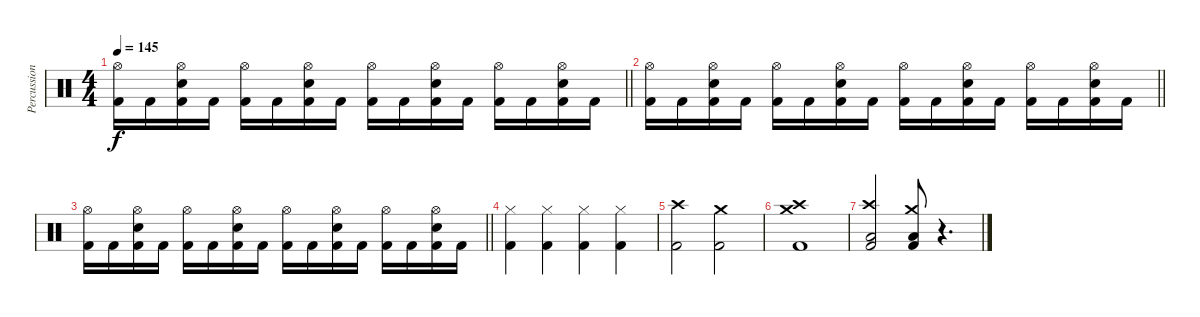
\track ("Percussion" "Percussion") {instrument percussion}
\staff {score}
\articulation defaults
\ts (4 4)
\tempo 145
\clef neutral
\barLineRight lightlight
\ks c
("Hi-Hat (open)" "Kick (hit) 2").16{dy f} "Kick (hit) 2".16 ("Hi-Hat (open)" "Electric Snare (hit)" "Kick (hit) 2").16 "Kick (hit) 2".16 ("Hi-Hat (open)" "Kick (hit) 2").16 "Kick (hit) 2".16 ("Hi-Hat (open)" "Electric Snare (hit)" "Kick (hit) 2").16 "Kick (hit) 2".16 ("Hi-Hat (open)" "Kick (hit) 2").16 "Kick (hit) 2".16 ("Hi-Hat (open)" "Electric Snare (hit)" "Kick (hit) 2").16 "Kick (hit) 2".16 ("Hi-Hat (open)" "Kick (hit) 2").16 "Kick (hit) 2".16 ("Hi-Hat (open)" "Electric Snare (hit)" "Kick (hit) 2").16 "Kick (hit) 2".16 |
\barLineRight lightlight
("Hi-Hat (open)" "Kick (hit) 2").16 "Kick (hit) 2".16 ("Hi-Hat (open)" "Electric Snare (hit)" "Kick (hit) 2").16 "Kick (hit) 2".16 ("Hi-Hat (open)" "Kick (hit) 2").16 "Kick (hit) 2".16 ("Hi-Hat (open)" "Electric Snare (hit)" "Kick (hit) 2").16 "Kick (hit) 2".16 ("Hi-Hat (open)" "Kick (hit) 2").16 "Kick (hit) 2".16 ("Hi-Hat (open)" "Electric Snare (hit)" "Kick (hit) 2").16 "Kick (hit) 2".16 ("Hi-Hat (open)" "Kick (hit) 2").16 "Kick (hit) 2".16 ("Hi-Hat (open)" "Electric Snare (hit)" "Kick (hit) 2").16 "Kick (hit) 2".16 |
\barLineRight lightlight
("Hi-Hat (open)" "Kick (hit) 2").16 "Kick (hit) 2".16 ("Hi-Hat (open)" "Electric Snare (hit)" "Kick (hit) 2").16 "Kick (hit) 2".16 ("Hi-Hat (open)" "Kick (hit) 2").16 "Kick (hit) 2".16 ("Hi-Hat (open)" "Electric Snare (hit)" "Kick (hit) 2").16 "Kick (hit) 2".16 ("Hi-Hat (open)" "Kick (hit) 2").16 "Kick (hit) 2".16 ("Hi-Hat (open)" "Electric Snare (hit)" "Kick (hit) 2").16 "Kick (hit) 2".16 ("Hi-Hat (open)" "Kick (hit) 2").16 "Kick (hit) 2".16 ("Hi-Hat (open)" "Electric Snare (hit)" "Kick (hit) 2").16 "Kick (hit) 2".16 |
("Hi-Hat (closed)" "Kick (hit) 2").4 ("Hi-Hat (closed)" "Kick (hit) 2").4 ("Hi-Hat (closed)" "Kick (hit) 2").4 ("Hi-Hat (closed)" "Kick (hit) 2").4 |
("Crash high (hit)" "Kick (hit) 2").2 ("Crash medium (hit)" "Kick (hit) 2").2 |
("Crash high (hit)" "Crash medium (hit)" "Kick (hit) 2").1 |
("Crash high (hit)" "Low Floor Tom (hit)" "Kick (hit) 2").2 ("Crash medium (hit)" "Low Floor Tom (hit)" "Kick (hit) 2").8 r.4{d}
